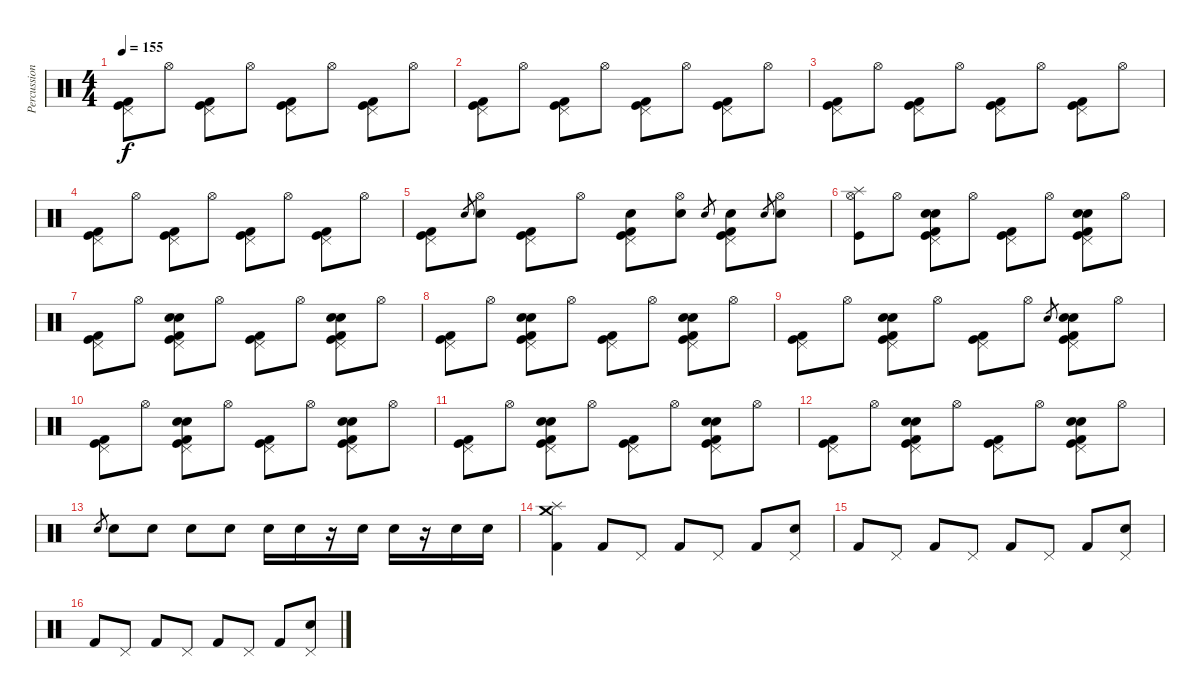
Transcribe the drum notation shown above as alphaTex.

\track ("Percussion" "Percussion") {instrument percussion}
\staff {score}
\articulation defaults
\ts (4 4)
\tempo 155
\clef neutral
\ks c
("Pedal Hi-Hat (hit)" "Kick (hit)" "Kick (hit) 2").8{dy f} "Hi-Hat (open)".8 ("Pedal Hi-Hat (hit)" "Kick (hit)" "Kick (hit) 2").8 "Hi-Hat (open)".8 ("Pedal Hi-Hat (hit)" "Kick (hit)" "Kick (hit) 2").8 "Hi-Hat (open)".8 ("Pedal Hi-Hat (hit)" "Kick (hit)" "Kick (hit) 2").8 "Hi-Hat (open)".8 |
("Pedal Hi-Hat (hit)" "Kick (hit)" "Kick (hit) 2").8 "Hi-Hat (open)".8 ("Pedal Hi-Hat (hit)" "Kick (hit)" "Kick (hit) 2").8 "Hi-Hat (open)".8 ("Pedal Hi-Hat (hit)" "Kick (hit)" "Kick (hit) 2").8 "Hi-Hat (open)".8 ("Pedal Hi-Hat (hit)" "Kick (hit)" "Kick (hit) 2").8 "Hi-Hat (open)".8 |
("Pedal Hi-Hat (hit)" "Kick (hit)" "Kick (hit) 2").8 "Hi-Hat (open)".8 ("Pedal Hi-Hat (hit)" "Kick (hit)" "Kick (hit) 2").8 "Hi-Hat (open)".8 ("Pedal Hi-Hat (hit)" "Kick (hit)" "Kick (hit) 2").8 "Hi-Hat (open)".8 ("Pedal Hi-Hat (hit)" "Kick (hit)" "Kick (hit) 2").8 "Hi-Hat (open)".8 |
("Pedal Hi-Hat (hit)" "Kick (hit)" "Kick (hit) 2").8 "Hi-Hat (open)".8 ("Pedal Hi-Hat (hit)" "Kick (hit)" "Kick (hit) 2").8 "Hi-Hat (open)".8 ("Pedal Hi-Hat (hit)" "Kick (hit)" "Kick (hit) 2").8 "Hi-Hat (open)".8 ("Pedal Hi-Hat (hit)" "Kick (hit)" "Kick (hit) 2").8 "Hi-Hat (open)".8 |
("Pedal Hi-Hat (hit)" "Kick (hit)" "Kick (hit) 2").8 "Snare (hit) 2".8{gr} ("Hi-Hat (open)" "Snare (hit) 2").8 ("Pedal Hi-Hat (hit)" "Kick (hit)" "Kick (hit) 2").8 "Hi-Hat (open)".8 ("Pedal Hi-Hat (hit)" "Kick (hit)" "Kick (hit) 2" "Snare (hit) 2").8 ("Hi-Hat (open)" "Snare (hit) 2").8 "Snare (hit) 2".8{gr} ("Pedal Hi-Hat (hit)" "Kick (hit)" "Kick (hit) 2" "Snare (hit) 2").8 "Snare (hit) 2".8{gr} ("Hi-Hat (open)" "Snare (hit) 2").8 |
("Splash (hit)" "Kick (hit)" "Hi-Hat (open)").8 "Hi-Hat (open)".8 ("Pedal Hi-Hat (hit)" "Kick (hit)" "Kick (hit) 2" "Snare (hit) 2" "Electric Snare (hit)").8 "Hi-Hat (open)".8 ("Pedal Hi-Hat (hit)" "Kick (hit)" "Kick (hit) 2").8 "Hi-Hat (open)".8 ("Pedal Hi-Hat (hit)" "Kick (hit)" "Kick (hit) 2" "Snare (hit) 2" "Electric Snare (hit)").8 "Hi-Hat (open)".8 |
("Pedal Hi-Hat (hit)" "Kick (hit)" "Kick (hit) 2").8 "Hi-Hat (open)".8 ("Pedal Hi-Hat (hit)" "Kick (hit)" "Kick (hit) 2" "Snare (hit) 2" "Electric Snare (hit)").8 "Hi-Hat (open)".8 ("Pedal Hi-Hat (hit)" "Kick (hit)" "Kick (hit) 2").8 "Hi-Hat (open)".8 ("Pedal Hi-Hat (hit)" "Kick (hit)" "Kick (hit) 2" "Snare (hit) 2" "Electric Snare (hit)").8 "Hi-Hat (open)".8 |
("Pedal Hi-Hat (hit)" "Kick (hit)" "Kick (hit) 2").8 "Hi-Hat (open)".8 ("Pedal Hi-Hat (hit)" "Kick (hit)" "Kick (hit) 2" "Snare (hit) 2" "Electric Snare (hit)").8 "Hi-Hat (open)".8 ("Pedal Hi-Hat (hit)" "Kick (hit)" "Kick (hit) 2").8 "Hi-Hat (open)".8 ("Pedal Hi-Hat (hit)" "Kick (hit)" "Kick (hit) 2" "Snare (hit) 2" "Electric Snare (hit)").8 "Hi-Hat (open)".8 |
("Pedal Hi-Hat (hit)" "Kick (hit)" "Kick (hit) 2").8 "Hi-Hat (open)".8 ("Pedal Hi-Hat (hit)" "Kick (hit)" "Kick (hit) 2" "Snare (hit) 2" "Electric Snare (hit)").8 "Hi-Hat (open)".8 ("Pedal Hi-Hat (hit)" "Kick (hit)" "Kick (hit) 2").8 "Hi-Hat (open)".8 "Snare (hit) 2".8{gr} ("Pedal Hi-Hat (hit)" "Kick (hit)" "Kick (hit) 2" "Snare (hit) 2" "Electric Snare (hit)").8 "Hi-Hat (open)".8 |
("Pedal Hi-Hat (hit)" "Kick (hit)" "Kick (hit) 2").8 "Hi-Hat (open)".8 ("Pedal Hi-Hat (hit)" "Kick (hit)" "Kick (hit) 2" "Snare (hit) 2" "Electric Snare (hit)").8 "Hi-Hat (open)".8 ("Pedal Hi-Hat (hit)" "Kick (hit)" "Kick (hit) 2").8 "Hi-Hat (open)".8 ("Pedal Hi-Hat (hit)" "Kick (hit)" "Kick (hit) 2" "Snare (hit) 2" "Electric Snare (hit)").8 "Hi-Hat (open)".8 |
("Pedal Hi-Hat (hit)" "Kick (hit)" "Kick (hit) 2").8 "Hi-Hat (open)".8 ("Pedal Hi-Hat (hit)" "Kick (hit)" "Kick (hit) 2" "Snare (hit) 2" "Electric Snare (hit)").8 "Hi-Hat (open)".8 ("Pedal Hi-Hat (hit)" "Kick (hit)" "Kick (hit) 2").8 "Hi-Hat (open)".8 ("Pedal Hi-Hat (hit)" "Kick (hit)" "Kick (hit) 2" "Snare (hit) 2" "Electric Snare (hit)").8 "Hi-Hat (open)".8 |
("Pedal Hi-Hat (hit)" "Kick (hit)" "Kick (hit) 2").8 "Hi-Hat (open)".8 ("Pedal Hi-Hat (hit)" "Kick (hit)" "Kick (hit) 2" "Snare (hit) 2" "Electric Snare (hit)").8 "Hi-Hat (open)".8 ("Pedal Hi-Hat (hit)" "Kick (hit)" "Kick (hit) 2").8 "Hi-Hat (open)".8 ("Pedal Hi-Hat (hit)" "Kick (hit)" "Kick (hit) 2" "Snare (hit) 2" "Electric Snare (hit)").8 "Hi-Hat (open)".8 |
"Snare (hit) 2".8{gr} "Snare (hit) 2".8 "Snare (hit) 2".8 "Snare (hit) 2".8 "Snare (hit) 2".8 "Snare (hit) 2".16 "Snare (hit) 2".16 r.16 "Snare (hit) 2".16 "Snare (hit) 2".16 r.16 "Snare (hit) 2".16 "Snare (hit) 2".16 |
("Splash (hit)" "Crash medium (hit)" "Kick (hit) 2").4 "Kick (hit) 2".8 "Pedal Hi-Hat (hit)".8 "Kick (hit) 2".8 "Pedal Hi-Hat (hit)".8 "Kick (hit) 2".8 ("Pedal Hi-Hat (hit)" "Snare (hit) 2").8 |
"Kick (hit) 2".8 "Pedal Hi-Hat (hit)".8 "Kick (hit) 2".8 "Pedal Hi-Hat (hit)".8 "Kick (hit) 2".8 "Pedal Hi-Hat (hit)".8 "Kick (hit) 2".8 ("Pedal Hi-Hat (hit)" "Snare (hit) 2").8 |
"Kick (hit) 2".8 "Pedal Hi-Hat (hit)".8 "Kick (hit) 2".8 "Pedal Hi-Hat (hit)".8 "Kick (hit) 2".8 "Pedal Hi-Hat (hit)".8 "Kick (hit) 2".8 ("Pedal Hi-Hat (hit)" "Snare (hit) 2").8
